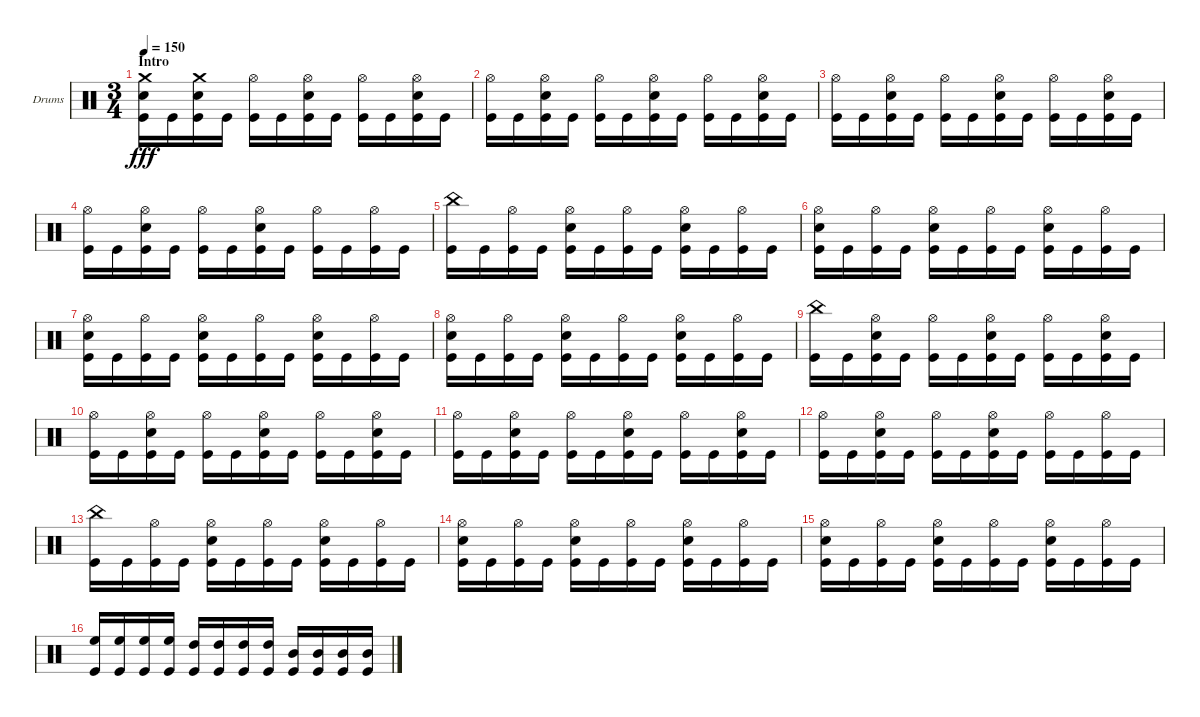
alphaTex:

\defaultSystemsLayout 4
\bracketExtendMode groupsimilarinstruments
\firstSystemTrackNameOrientation horizontal
\otherSystemsTrackNameOrientation horizontal
\track ("Chris Adler" "Drums") {instrument percussion}
\staff {score}
\articulation defaults
\ts (3 4)
\section ("" "Intro")
\tempo 150
\clef neutral
\ks c
("Kick (hit)" "Snare (hit) 2" "Crash medium (hit)").16{dy fff} "Kick (hit)".16 ("Kick (hit)" "Snare (hit) 2" "Crash medium (hit)").16 "Kick (hit)".16 ("Kick (hit)" "Hi-Hat (open)").16 "Kick (hit)".16 ("Kick (hit)" "Snare (hit) 2" "Hi-Hat (open)").16 "Kick (hit)".16 ("Kick (hit)" "Hi-Hat (open)").16 "Kick (hit)".16 ("Kick (hit)" "Snare (hit) 2" "Hi-Hat (open)").16 "Kick (hit)".16 |
("Kick (hit)" "Hi-Hat (open)").16 "Kick (hit)".16 ("Kick (hit)" "Snare (hit) 2" "Hi-Hat (open)").16 "Kick (hit)".16 ("Kick (hit)" "Hi-Hat (open)").16 "Kick (hit)".16 ("Kick (hit)" "Snare (hit) 2" "Hi-Hat (open)").16 "Kick (hit)".16 ("Kick (hit)" "Hi-Hat (open)").16 "Kick (hit)".16 ("Kick (hit)" "Snare (hit) 2" "Hi-Hat (open)").16 "Kick (hit)".16 |
("Kick (hit)" "Hi-Hat (open)").16 "Kick (hit)".16 ("Kick (hit)" "Snare (hit) 2" "Hi-Hat (open)").16 "Kick (hit)".16 ("Kick (hit)" "Hi-Hat (open)").16 "Kick (hit)".16 ("Kick (hit)" "Snare (hit) 2" "Hi-Hat (open)").16 "Kick (hit)".16 ("Kick (hit)" "Hi-Hat (open)").16 "Kick (hit)".16 ("Kick (hit)" "Snare (hit) 2" "Hi-Hat (open)").16 "Kick (hit)".16 |
("Kick (hit)" "Hi-Hat (open)").16 "Kick (hit)".16 ("Kick (hit)" "Snare (hit) 2" "Hi-Hat (open)").16 "Kick (hit)".16 ("Kick (hit)" "Hi-Hat (open)").16 "Kick (hit)".16 ("Kick (hit)" "Snare (hit) 2" "Hi-Hat (open)").16 "Kick (hit)".16 ("Kick (hit)" "Hi-Hat (open)").16 "Kick (hit)".16 ("Kick (hit)" "Hi-Hat (open)").16 "Kick (hit)".16 |
("Kick (hit)" "China (hit)").16 "Kick (hit)".16 ("Kick (hit)" "Hi-Hat (open)").16 "Kick (hit)".16 ("Kick (hit)" "Snare (hit) 2" "Hi-Hat (open)").16 "Kick (hit)".16 ("Kick (hit)" "Hi-Hat (open)").16 "Kick (hit)".16 ("Kick (hit)" "Snare (hit) 2" "Hi-Hat (open)").16 "Kick (hit)".16 ("Kick (hit)" "Hi-Hat (open)").16 "Kick (hit)".16 |
("Kick (hit)" "Snare (hit) 2" "Hi-Hat (open)").16 "Kick (hit)".16 ("Kick (hit)" "Hi-Hat (open)").16 "Kick (hit)".16 ("Kick (hit)" "Snare (hit) 2" "Hi-Hat (open)").16 "Kick (hit)".16 ("Kick (hit)" "Hi-Hat (open)").16 "Kick (hit)".16 ("Kick (hit)" "Snare (hit) 2" "Hi-Hat (open)").16 "Kick (hit)".16 ("Kick (hit)" "Hi-Hat (open)").16 "Kick (hit)".16 |
("Kick (hit)" "Snare (hit) 2" "Hi-Hat (open)").16 "Kick (hit)".16 ("Kick (hit)" "Hi-Hat (open)").16 "Kick (hit)".16 ("Kick (hit)" "Snare (hit) 2" "Hi-Hat (open)").16 "Kick (hit)".16 ("Kick (hit)" "Hi-Hat (open)").16 "Kick (hit)".16 ("Kick (hit)" "Snare (hit) 2" "Hi-Hat (open)").16 "Kick (hit)".16 ("Kick (hit)" "Hi-Hat (open)").16 "Kick (hit)".16 |
("Kick (hit)" "Snare (hit) 2" "Hi-Hat (open)").16 "Kick (hit)".16 ("Kick (hit)" "Hi-Hat (open)").16 "Kick (hit)".16 ("Kick (hit)" "Snare (hit) 2" "Hi-Hat (open)").16 "Kick (hit)".16 ("Kick (hit)" "Hi-Hat (open)").16 "Kick (hit)".16 ("Kick (hit)" "Snare (hit) 2" "Hi-Hat (open)").16 "Kick (hit)".16 ("Kick (hit)" "Hi-Hat (open)").16 "Kick (hit)".16 |
("Kick (hit)" "China (hit)").16 "Kick (hit)".16 ("Kick (hit)" "Snare (hit) 2" "Hi-Hat (open)").16 "Kick (hit)".16 ("Kick (hit)" "Hi-Hat (open)").16 "Kick (hit)".16 ("Kick (hit)" "Snare (hit) 2" "Hi-Hat (open)").16 "Kick (hit)".16 ("Kick (hit)" "Hi-Hat (open)").16 "Kick (hit)".16 ("Kick (hit)" "Snare (hit) 2" "Hi-Hat (open)").16 "Kick (hit)".16 |
("Kick (hit)" "Hi-Hat (open)").16 "Kick (hit)".16 ("Kick (hit)" "Snare (hit) 2" "Hi-Hat (open)").16 "Kick (hit)".16 ("Kick (hit)" "Hi-Hat (open)").16 "Kick (hit)".16 ("Kick (hit)" "Snare (hit) 2" "Hi-Hat (open)").16 "Kick (hit)".16 ("Kick (hit)" "Hi-Hat (open)").16 "Kick (hit)".16 ("Kick (hit)" "Snare (hit) 2" "Hi-Hat (open)").16 "Kick (hit)".16 |
("Kick (hit)" "Hi-Hat (open)").16 "Kick (hit)".16 ("Kick (hit)" "Snare (hit) 2" "Hi-Hat (open)").16 "Kick (hit)".16 ("Kick (hit)" "Hi-Hat (open)").16 "Kick (hit)".16 ("Kick (hit)" "Snare (hit) 2" "Hi-Hat (open)").16 "Kick (hit)".16 ("Kick (hit)" "Hi-Hat (open)").16 "Kick (hit)".16 ("Kick (hit)" "Snare (hit) 2" "Hi-Hat (open)").16 "Kick (hit)".16 |
("Kick (hit)" "Hi-Hat (open)").16 "Kick (hit)".16 ("Kick (hit)" "Snare (hit) 2" "Hi-Hat (open)").16 "Kick (hit)".16 ("Kick (hit)" "Hi-Hat (open)").16 "Kick (hit)".16 ("Kick (hit)" "Snare (hit) 2" "Hi-Hat (open)").16 "Kick (hit)".16 ("Kick (hit)" "Hi-Hat (open)").16 "Kick (hit)".16 ("Kick (hit)" "Hi-Hat (open)").16 "Kick (hit)".16 |
("Kick (hit)" "China (hit)").16 "Kick (hit)".16 ("Kick (hit)" "Hi-Hat (open)").16 "Kick (hit)".16 ("Kick (hit)" "Snare (hit) 2" "Hi-Hat (open)").16 "Kick (hit)".16 ("Kick (hit)" "Hi-Hat (open)").16 "Kick (hit)".16 ("Kick (hit)" "Snare (hit) 2" "Hi-Hat (open)").16 "Kick (hit)".16 ("Kick (hit)" "Hi-Hat (open)").16 "Kick (hit)".16 |
("Kick (hit)" "Snare (hit) 2" "Hi-Hat (open)").16 "Kick (hit)".16 ("Kick (hit)" "Hi-Hat (open)").16 "Kick (hit)".16 ("Kick (hit)" "Snare (hit) 2" "Hi-Hat (open)").16 "Kick (hit)".16 ("Kick (hit)" "Hi-Hat (open)").16 "Kick (hit)".16 ("Kick (hit)" "Snare (hit) 2" "Hi-Hat (open)").16 "Kick (hit)".16 ("Kick (hit)" "Hi-Hat (open)").16 "Kick (hit)".16 |
("Kick (hit)" "Snare (hit) 2" "Hi-Hat (open)").16 "Kick (hit)".16 ("Kick (hit)" "Hi-Hat (open)").16 "Kick (hit)".16 ("Kick (hit)" "Snare (hit) 2" "Hi-Hat (open)").16 "Kick (hit)".16 ("Kick (hit)" "Hi-Hat (open)").16 "Kick (hit)".16 ("Kick (hit)" "Snare (hit) 2" "Hi-Hat (open)").16 "Kick (hit)".16 ("Kick (hit)" "Hi-Hat (open)").16 "Kick (hit)".16 |
("Kick (hit)" "High Floor Tom (hit)").16 ("Kick (hit)" "High Floor Tom (hit)").16 ("Kick (hit)" "High Floor Tom (hit)").16 ("Kick (hit)" "High Floor Tom (hit)").16 ("Kick (hit)" "High Tom (hit)").16 ("Kick (hit)" "High Tom (hit)").16 ("Kick (hit)" "High Tom (hit)").16 ("Kick (hit)" "High Tom (hit)").16 ("Kick (hit)" "Mid Tom (hit)").16 ("Kick (hit)" "Mid Tom (hit)").16 ("Kick (hit)" "Mid Tom (hit)").16 ("Kick (hit)" "Mid Tom (hit)").16
